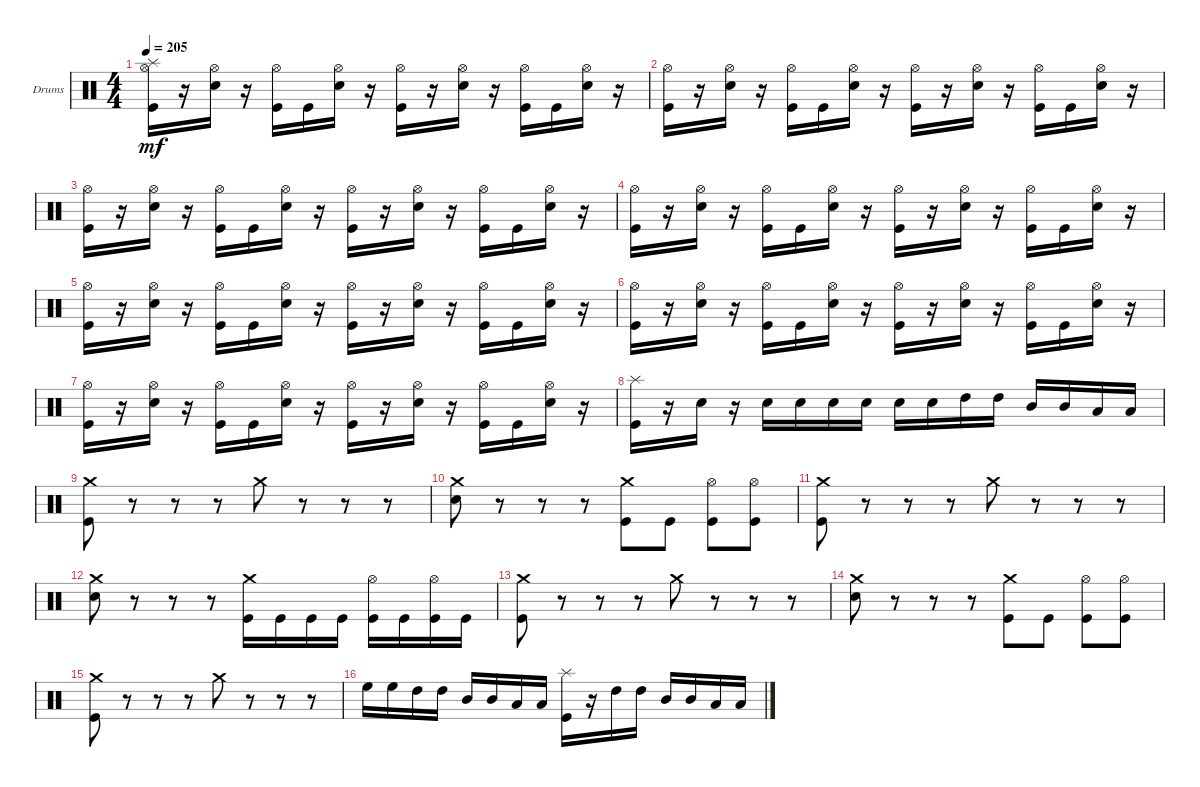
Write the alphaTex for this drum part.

\defaultSystemsLayout 4
\bracketExtendMode groupsimilarinstruments
\firstSystemTrackNameOrientation horizontal
\otherSystemsTrackNameOrientation horizontal
\track ("Drumkit" "Drums") {instrument percussion}
\staff {score}
\articulation defaults
\ts (4 4)
\tempo 205
\clef neutral
\ks c
("Kick (hit)" "Hi-Hat (open)" "Splash (hit)").16{dy mf} r.16 ("Snare (hit) 2" "Hi-Hat (open)").16 r.16 ("Kick (hit)" "Hi-Hat (open)").16 "Kick (hit)".16 ("Snare (hit) 2" "Hi-Hat (open)").16 r.16 ("Kick (hit)" "Hi-Hat (open)").16 r.16 ("Snare (hit) 2" "Hi-Hat (open)").16 r.16 ("Kick (hit)" "Hi-Hat (open)").16 "Kick (hit)".16 ("Snare (hit) 2" "Hi-Hat (open)").16 r.16 |
("Kick (hit)" "Hi-Hat (open)").16 r.16 ("Snare (hit) 2" "Hi-Hat (open)").16 r.16 ("Kick (hit)" "Hi-Hat (open)").16 "Kick (hit)".16 ("Snare (hit) 2" "Hi-Hat (open)").16 r.16 ("Kick (hit)" "Hi-Hat (open)").16 r.16 ("Snare (hit) 2" "Hi-Hat (open)").16 r.16 ("Kick (hit)" "Hi-Hat (open)").16 "Kick (hit)".16 ("Snare (hit) 2" "Hi-Hat (open)").16 r.16 |
("Kick (hit)" "Hi-Hat (open)").16 r.16 ("Snare (hit) 2" "Hi-Hat (open)").16 r.16 ("Kick (hit)" "Hi-Hat (open)").16 "Kick (hit)".16 ("Snare (hit) 2" "Hi-Hat (open)").16 r.16 ("Kick (hit)" "Hi-Hat (open)").16 r.16 ("Snare (hit) 2" "Hi-Hat (open)").16 r.16 ("Kick (hit)" "Hi-Hat (open)").16 "Kick (hit)".16 ("Snare (hit) 2" "Hi-Hat (open)").16 r.16 |
("Kick (hit)" "Hi-Hat (open)").16 r.16 ("Snare (hit) 2" "Hi-Hat (open)").16 r.16 ("Kick (hit)" "Hi-Hat (open)").16 "Kick (hit)".16 ("Snare (hit) 2" "Hi-Hat (open)").16 r.16 ("Kick (hit)" "Hi-Hat (open)").16 r.16 ("Snare (hit) 2" "Hi-Hat (open)").16 r.16 ("Kick (hit)" "Hi-Hat (open)").16 "Kick (hit)".16 ("Snare (hit) 2" "Hi-Hat (open)").16 r.16 |
("Kick (hit)" "Hi-Hat (open)").16 r.16 ("Snare (hit) 2" "Hi-Hat (open)").16 r.16 ("Kick (hit)" "Hi-Hat (open)").16 "Kick (hit)".16 ("Snare (hit) 2" "Hi-Hat (open)").16 r.16 ("Kick (hit)" "Hi-Hat (open)").16 r.16 ("Snare (hit) 2" "Hi-Hat (open)").16 r.16 ("Kick (hit)" "Hi-Hat (open)").16 "Kick (hit)".16 ("Snare (hit) 2" "Hi-Hat (open)").16 r.16 |
("Kick (hit)" "Hi-Hat (open)").16 r.16 ("Snare (hit) 2" "Hi-Hat (open)").16 r.16 ("Kick (hit)" "Hi-Hat (open)").16 "Kick (hit)".16 ("Snare (hit) 2" "Hi-Hat (open)").16 r.16 ("Kick (hit)" "Hi-Hat (open)").16 r.16 ("Snare (hit) 2" "Hi-Hat (open)").16 r.16 ("Kick (hit)" "Hi-Hat (open)").16 "Kick (hit)".16 ("Snare (hit) 2" "Hi-Hat (open)").16 r.16 |
("Kick (hit)" "Hi-Hat (open)").16 r.16 ("Snare (hit) 2" "Hi-Hat (open)").16 r.16 ("Kick (hit)" "Hi-Hat (open)").16 "Kick (hit)".16 ("Snare (hit) 2" "Hi-Hat (open)").16 r.16 ("Kick (hit)" "Hi-Hat (open)").16 r.16 ("Snare (hit) 2" "Hi-Hat (open)").16 r.16 ("Kick (hit)" "Hi-Hat (open)").16 "Kick (hit)".16 ("Snare (hit) 2" "Hi-Hat (open)").16 r.16 |
("Kick (hit)" "Splash (hit)").16 r.16 "Snare (hit) 2".16 r.16 "Snare (hit) 2".16 "Snare (hit) 2".16 "Snare (hit) 2".16 "Snare (hit) 2".16 "Snare (hit) 2".16 "Snare (hit) 2".16 "High Tom (hit)".16 "High Tom (hit)".16 "Mid Tom (hit)".16 "Mid Tom (hit)".16 "Low Tom (hit)".16 "Low Tom (hit)".16 |
("Kick (hit)" "Crash medium (hit)").8 r.8 r.8 r.8 "Crash medium (hit)".8 r.8 r.8 r.8 |
("Snare (hit) 2" "Crash medium (hit)").8 r.8 r.8 r.8 ("Crash medium (hit)" "Kick (hit)").8 "Kick (hit)".8 ("Hi-Hat (open)" "Kick (hit)").8 ("Hi-Hat (open)" "Kick (hit)").8 |
("Kick (hit)" "Crash medium (hit)").8 r.8 r.8 r.8 "Crash medium (hit)".8 r.8 r.8 r.8 |
("Snare (hit) 2" "Crash medium (hit)").8 r.8 r.8 r.8 ("Kick (hit)" "Crash medium (hit)").16 "Kick (hit)".16 "Kick (hit)".16 "Kick (hit)".16 ("Kick (hit)" "Hi-Hat (open)").16 "Kick (hit)".16 ("Kick (hit)" "Hi-Hat (open)").16 "Kick (hit)".16 |
("Kick (hit)" "Crash medium (hit)").8 r.8 r.8 r.8 "Crash medium (hit)".8 r.8 r.8 r.8 |
("Snare (hit) 2" "Crash medium (hit)").8 r.8 r.8 r.8 ("Crash medium (hit)" "Kick (hit)").8 "Kick (hit)".8 ("Hi-Hat (open)" "Kick (hit)").8 ("Hi-Hat (open)" "Kick (hit)").8 |
("Kick (hit)" "Crash medium (hit)").8 r.8 r.8 r.8 "Crash medium (hit)".8 r.8 r.8 r.8 |
"High Floor Tom (hit)".16 "High Floor Tom (hit)".16 "High Tom (hit)".16 "High Tom (hit)".16 "Mid Tom (hit)".16 "Mid Tom (hit)".16 "Low Tom (hit)".16 "Low Tom (hit)".16 ("Kick (hit)" "Splash (hit)").16 r.16 "High Tom (hit)".16 "High Tom (hit)".16 "Mid Tom (hit)".16 "Mid Tom (hit)".16 "Low Tom (hit)".16 "Low Tom (hit)".16
